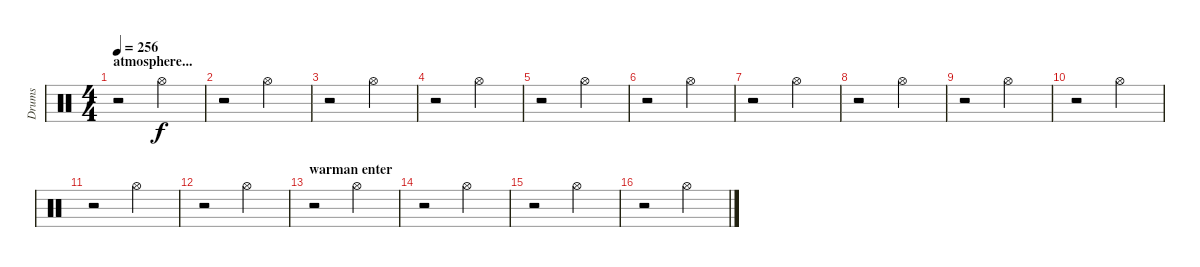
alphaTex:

\track ("Drums" "Drums") {instrument percussion}
\staff {score}
\articulation defaults
\ts (4 4)
\section ("" "atmosphere...")
\tempo 256
\clef neutral
\ks c
r.2{dy f} "Hi-Hat (open)".2 |
r.2 "Hi-Hat (open)".2 |
r.2 "Hi-Hat (open)".2 |
r.2 "Hi-Hat (open)".2 |
r.2 "Hi-Hat (open)".2 |
r.2 "Hi-Hat (open)".2 |
r.2 "Hi-Hat (open)".2 |
r.2 "Hi-Hat (open)".2 |
r.2 "Hi-Hat (open)".2 |
r.2 "Hi-Hat (open)".2 |
r.2 "Hi-Hat (open)".2 |
r.2 "Hi-Hat (open)".2 |
\section ("" "warman enter")
r.2 "Hi-Hat (open)".2 |
r.2 "Hi-Hat (open)".2 |
r.2 "Hi-Hat (open)".2 |
r.2 "Hi-Hat (open)".2
